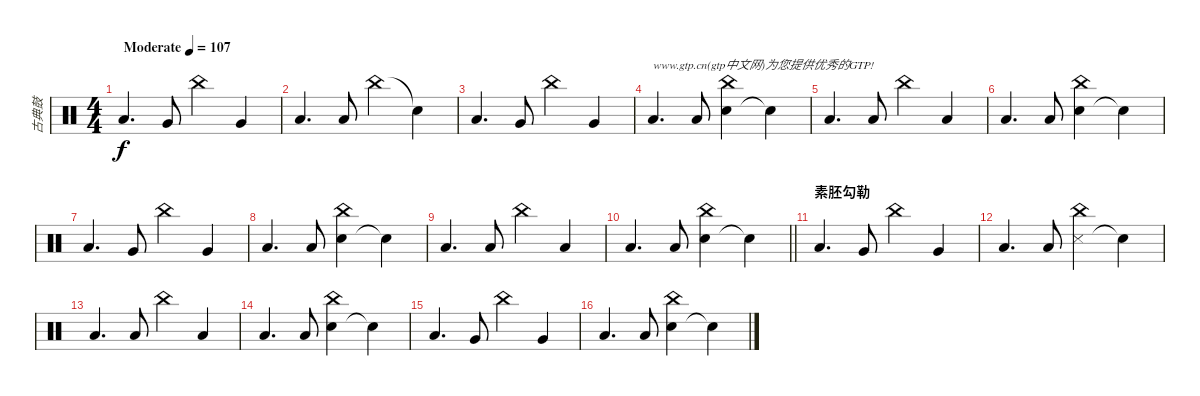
\track ("古典鼓" "古典鼓") {instrument percussion}
\staff {score}
\articulation defaults
\ts (4 4)
\tempo (107 "Moderate")
\clef neutral
\ks c "Low Floor Tom (hit)".4{d dy f} "Very Low Tom (hit)".8 "China (hit)".4 "Very Low Tom (hit)".4
|
"Low Floor Tom (hit)".4{d} "Low Floor Tom (hit)".8 "China (hit)".4 "Snare (hit)"{t}.4 |
"Low Floor Tom (hit)".4{d} "Very Low Tom (hit)".8 "China (hit)".4 "Very Low Tom (hit)".4 |
"Low Floor Tom (hit)".4{d txt "www.gtp.cn(gtp中文网)为您提供优秀的GTP!"} "Low Floor Tom (hit)".8 ("Hand Clap (hit)" "China (hit)").4 "Snare (hit)"{t}.4 |
"Low Floor Tom (hit)".4{d} "Low Floor Tom (hit)".8 "China (hit)".4 "Low Floor Tom (hit)".4 |
"Low Floor Tom (hit)".4{d} "Low Floor Tom (hit)".8 ("Hand Clap (hit)" "China (hit)").4 "Snare (hit)"{t}.4 |
"Low Floor Tom (hit)".4{d} "Very Low Tom (hit)".8 "China (hit)".4 "Very Low Tom (hit)".4 |
"Low Floor Tom (hit)".4{d} "Low Floor Tom (hit)".8 ("Hand Clap (hit)" "China (hit)").4 "Snare (hit)"{t}.4 |
"Low Floor Tom (hit)".4{d} "Low Floor Tom (hit)".8 "China (hit)".4 "Low Floor Tom (hit)".4 |
\barLineRight lightlight "Low Floor Tom (hit)".4{d} "Low Floor Tom (hit)".8
("Hand Clap (hit)" "China (hit)").4 "Snare (hit)"{t}.4 |
\section ("" "素胚勾勒")
"Low Floor Tom (hit)".4{d} "Very Low Tom (hit)".8 "China (hit)".4 "Very Low Tom (hit)".4 |
"Low Floor Tom (hit)".4{d} "Low Floor Tom (hit)".8 ("Snare (side stick) 3" "China (hit)").4 "Snare (hit)"{t}.4 |
"Low Floor Tom (hit)".4{d} "Low Floor Tom (hit)".8 "China (hit)".4 "Low Floor Tom (hit)".4 |
"Low Floor Tom (hit)".4{d} "Low Floor Tom (hit)".8 ("Hand Clap (hit)" "China (hit)").4 "Snare (hit)"{t}.4 |
"Low Floor Tom (hit)".4{d} "Very Low Tom (hit)".8 "China (hit)".4 "Very Low Tom (hit)".4 |
"Low Floor Tom (hit)".4{d} "Low Floor Tom (hit)".8 ("Hand Clap (hit)" "China (hit)").4 "Snare (hit)"{t}.4
